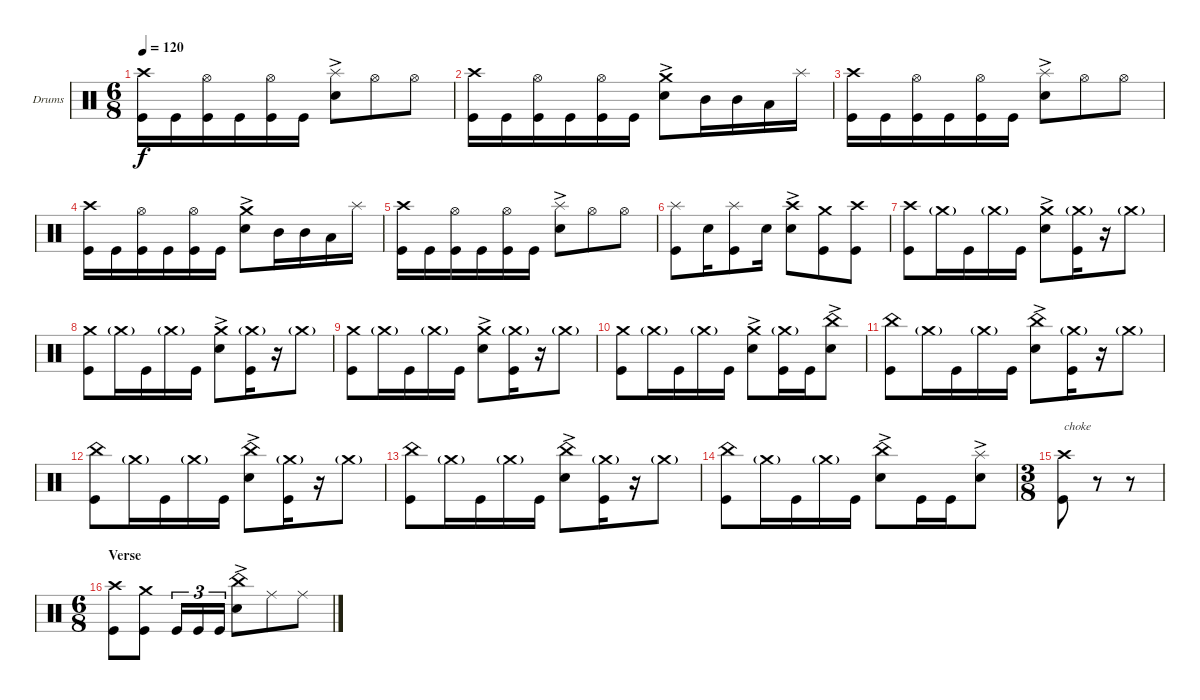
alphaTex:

\bracketExtendMode groupsimilarinstruments
\firstSystemTrackNameOrientation horizontal
\otherSystemsTrackNameOrientation horizontal
\track ("Drumkit" "Drums") {instrument percussion}
\staff {score}
\articulation defaults
\ts (6 8)
\tempo 120
\clef neutral
\ks c
("Crash high (hit)" "Kick (hit)").16{dy f} "Kick (hit)".16 ("Kick (hit)" "Hi-Hat (open)").16 "Kick (hit)".16 ("Kick (hit)" "Hi-Hat (open)").16 "Kick (hit)".16 ("Snare (hit) 2"{ac} "Splash (hit)").8 "Hi-Hat (open)".8 "Hi-Hat (open)".8 |
("Crash high (hit)" "Kick (hit)").16 "Kick (hit)".16 ("Kick (hit)" "Hi-Hat (open)").16 "Kick (hit)".16 ("Kick (hit)" "Hi-Hat (open)").16 "Kick (hit)".16 ("Snare (hit) 2"{ac} "Crash medium (hit)").8 "Mid Tom (hit)".16 "Mid Tom (hit)".16 "Low Tom (hit)".16 "Splash (hit)".16 |
("Crash high (hit)" "Kick (hit)").16 "Kick (hit)".16 ("Kick (hit)" "Hi-Hat (open)").16 "Kick (hit)".16 ("Kick (hit)" "Hi-Hat (open)").16 "Kick (hit)".16 ("Snare (hit) 2"{ac} "Splash (hit)").8 "Hi-Hat (open)".8 "Hi-Hat (open)".8 |
("Crash high (hit)" "Kick (hit)").16 "Kick (hit)".16 ("Kick (hit)" "Hi-Hat (open)").16 "Kick (hit)".16 ("Kick (hit)" "Hi-Hat (open)").16 "Kick (hit)".16 ("Snare (hit) 2"{ac} "Crash medium (hit)").8 "Mid Tom (hit)".16 "Mid Tom (hit)".16 "Low Tom (hit)".16 "Splash (hit)".16 |
("Crash high (hit)" "Kick (hit)").16 "Kick (hit)".16 ("Kick (hit)" "Hi-Hat (open)").16 "Kick (hit)".16 ("Kick (hit)" "Hi-Hat (open)").16 "Kick (hit)".16 ("Snare (hit) 2"{ac} "Splash (hit)").8 "Hi-Hat (open)".8 "Hi-Hat (open)".8 |
("Kick (hit)" "Splash (hit)").8 "Snare (hit) 2".16 ("Kick (hit)" "Splash (hit)").8 "Snare (hit) 2".16 ("Snare (hit) 2"{ac} "Crash high (hit)").8 ("Kick (hit)" "Crash medium (hit)").8 ("Kick (hit)" "Crash high (hit)").8 |
("Kick (hit)" "Crash high (hit)").8 "Crash medium (hit)"{g}.16 "Kick (hit)".16 "Crash medium (hit)"{g}.16 "Kick (hit)".16 ("Snare (hit) 2"{ac} "Crash medium (hit)").8 ("Kick (hit)" "Crash medium (hit)"{g}).16 r.16 "Crash medium (hit)"{g}.8 |
("Kick (hit)" "Crash medium (hit)").8 "Crash medium (hit)"{g}.16 "Kick (hit)".16 "Crash medium (hit)"{g}.16 "Kick (hit)".16 ("Snare (hit) 2"{ac} "Crash medium (hit)").8 ("Kick (hit)" "Crash medium (hit)"{g}).16 r.16 "Crash medium (hit)"{g}.8 |
("Kick (hit)" "Crash medium (hit)").8 "Crash medium (hit)"{g}.16 "Kick (hit)".16 "Crash medium (hit)"{g}.16 "Kick (hit)".16 ("Snare (hit) 2"{ac} "Crash medium (hit)").8 ("Kick (hit)" "Crash medium (hit)"{g}).16 r.16 "Crash medium (hit)"{g}.8 |
("Kick (hit)" "Crash medium (hit)").8 "Crash medium (hit)"{g}.16 "Kick (hit)".16 "Crash medium (hit)"{g}.16 "Kick (hit)".16 ("Snare (hit) 2"{ac} "Crash medium (hit)").8 ("Kick (hit)" "Crash medium (hit)"{g}).16 "Kick (hit)".16 ("Snare (hit) 2"{ac} "China (hit)").8 |
("Kick (hit)" "China (hit)").8 "Crash medium (hit)"{g}.16 "Kick (hit)".16 "Crash medium (hit)"{g}.16 "Kick (hit)".16 ("Snare (hit) 2"{ac} "China (hit)").8 ("Kick (hit)" "Crash medium (hit)"{g}).16 r.16 "Crash medium (hit)"{g}.8 |
("Kick (hit)" "China (hit)").8 "Crash medium (hit)"{g}.16 "Kick (hit)".16 "Crash medium (hit)"{g}.16 "Kick (hit)".16 ("Snare (hit) 2"{ac} "China (hit)").8 ("Kick (hit)" "Crash medium (hit)"{g}).16 r.16 "Crash medium (hit)"{g}.8 |
("Kick (hit)" "China (hit)").8 "Crash medium (hit)"{g}.16 "Kick (hit)".16 "Crash medium (hit)"{g}.16 "Kick (hit)".16 ("Snare (hit) 2"{ac} "China (hit)").8 ("Kick (hit)" "Crash medium (hit)"{g}).16 r.16 "Crash medium (hit)"{g}.8 |
("Kick (hit)" "China (hit)").8 "Crash medium (hit)"{g}.16 "Kick (hit)".16 "Crash medium (hit)"{g}.16 "Kick (hit)".16 ("Snare (hit) 2"{ac} "China (hit)").8 "Kick (hit)".16 "Kick (hit)".16 ("Snare (hit) 2"{ac} "Splash (hit)").8 |
\ts (3 8)
("Kick (hit)" "Crash high (hit)").8{txt "choke"} r.8 r.8 |
\ts (6 8)
\section ("" "Verse")
("Kick (hit)" "Crash high (hit)").8 ("Kick (hit)" "Crash medium (hit)").8 "Kick (hit)".16{tu (3 2)} "Kick (hit)".16{tu (3 2)} "Kick (hit)".16{tu (3 2)} ("Snare (hit) 2"{ac} "China (hit)").8 "Ride (middle)".8 "Ride (middle)".8
